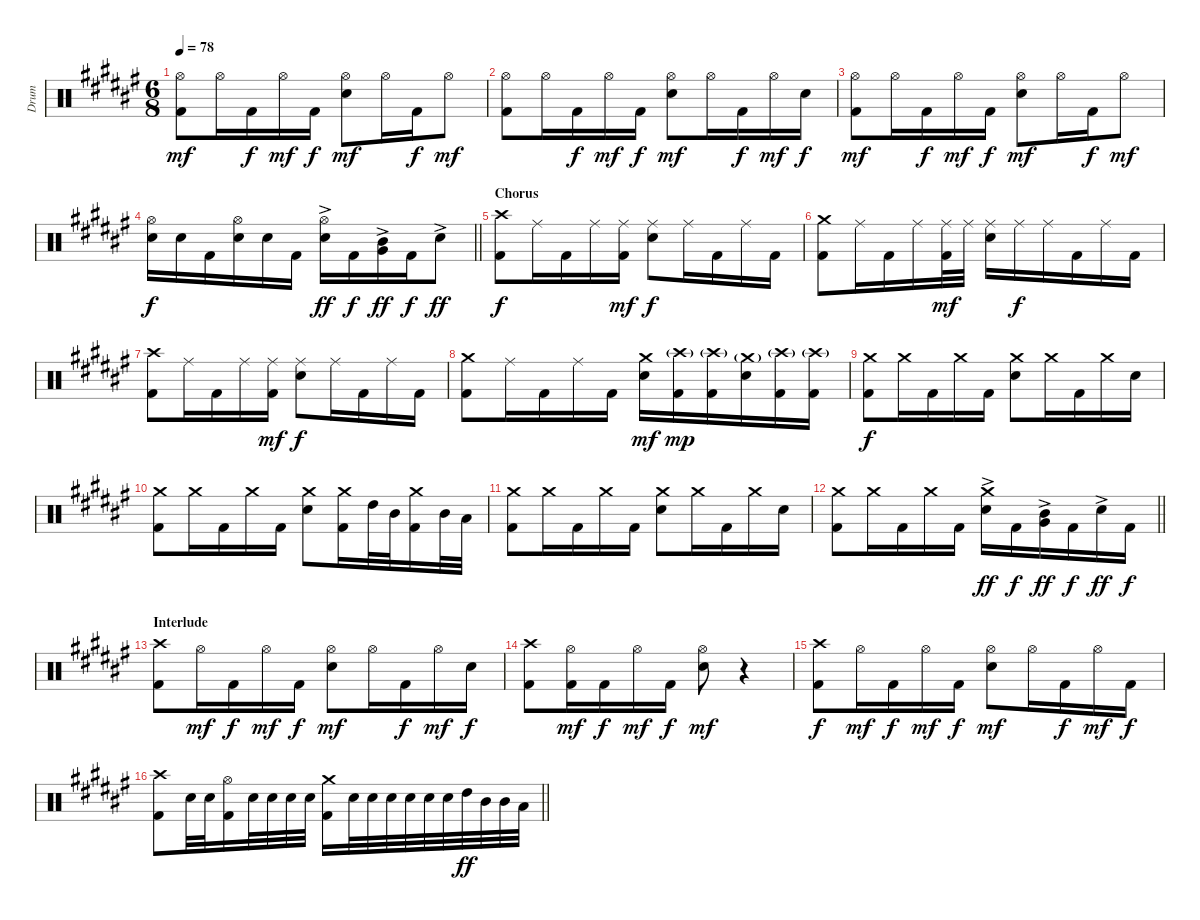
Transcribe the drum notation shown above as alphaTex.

\track ("Drum" "Drum") {instrument percussion}
\staff {score}
\articulation defaults
\ts (6 8)
\tempo 78
\clef neutral
\ks d#minor
("Hi-Hat (open)" "Kick (hit) 2").8{dy mf} "Hi-Hat (open)".16 "Kick (hit) 2".16{dy f} "Hi-Hat (open)".16{dy mf} "Kick (hit) 2".16{dy f} ("Hi-Hat (open)" "Electric Snare (hit)").8{dy mf} "Hi-Hat (open)".16 "Kick (hit) 2".16{dy f} "Hi-Hat (open)".8{dy mf} |
("Hi-Hat (open)" "Kick (hit) 2").8 "Hi-Hat (open)".16 "Kick (hit) 2".16{dy f} "Hi-Hat (open)".16{dy mf} "Kick (hit) 2".16{dy f} ("Hi-Hat (open)" "Electric Snare (hit)").8{dy mf} "Hi-Hat (open)".16 "Kick (hit) 2".16{dy f} "Hi-Hat (open)".16{dy mf} "Electric Snare (hit)".16{dy f} |
("Hi-Hat (open)" "Kick (hit) 2").8{dy mf} "Hi-Hat (open)".16 "Kick (hit) 2".16{dy f} "Hi-Hat (open)".16{dy mf} "Kick (hit) 2".16{dy f} ("Hi-Hat (open)" "Electric Snare (hit)").8{dy mf} "Hi-Hat (open)".16 "Kick (hit) 2".16{dy f} "Hi-Hat (open)".8{dy mf} |
\barLineRight lightlight
("Hi-Hat (open)" "Electric Snare (hit)").16{dy f} "Electric Snare (hit)".16 "Kick (hit) 2".16 ("Hi-Hat (open)" "Electric Snare (hit)").16 "Electric Snare (hit)".16 "Kick (hit) 2".16 ("Hi-Hat (open)" "Electric Snare (hit)"{ac}).16{dy ff} "Kick (hit) 2".16{dy f} ("Mid Tom (hit)" "Very Low Tom (hit)"{ac}).16{dy ff} "Kick (hit) 2".16{dy f} "Electric Snare (hit)"{ac}.8{dy ff} |
\section ("" "Chorus")
("Crash high (hit)" "Kick (hit) 2").8{dy f} "Ride (middle)".16 "Kick (hit) 2".16 "Ride (middle)".16 ("Ride (middle)" "Kick (hit) 2").16{dy mf} ("Ride (middle)" "Electric Snare (hit)").8{dy f} "Ride (middle)".16 "Kick (hit) 2".16 "Ride (middle)".16 "Kick (hit) 2".16 |
("Crash medium (hit)" "Kick (hit) 2").8 "Ride (middle)".16 "Kick (hit) 2".16 "Ride (middle)".16 ("Ride (middle)" "Kick (hit) 2").32{dy mf} "Ride (middle)".32 ("Ride (middle)" "Electric Snare (hit)").16 "Ride (middle)".16{dy f} "Ride (middle)".16 "Kick (hit) 2".16 "Ride (middle)".16 "Kick (hit) 2".16 |
("Crash high (hit)" "Kick (hit) 2").8 "Ride (middle)".16 "Kick (hit) 2".16 "Ride (middle)".16 ("Ride (middle)" "Kick (hit) 2").16{dy mf} ("Ride (middle)" "Electric Snare (hit)").8{dy f} "Ride (middle)".16 "Kick (hit) 2".16 "Ride (middle)".16 "Kick (hit) 2".16 |
("Crash medium (hit)" "Kick (hit) 2").8 "Ride (middle)".16 "Kick (hit) 2".16 "Ride (middle)".16 "Kick (hit) 2".16 ("Crash medium (hit)" "Electric Snare (hit)").16{dy mf} ("Crash high (hit)"{g} "Kick (hit) 2").16{dy mp} ("Crash high (hit)"{g} "Kick (hit) 2").16 ("Crash medium (hit)"{g} "Electric Snare (hit)").16 ("Crash high (hit)"{g} "Kick (hit) 2").16 ("Crash high (hit)"{g} "Kick (hit) 2").16 |
("Crash medium (hit)" "Kick (hit) 2").8{dy f} "Crash medium (hit)".16 "Kick (hit) 2".16 "Crash medium (hit)".16 "Kick (hit) 2".16 ("Crash medium (hit)" "Electric Snare (hit)").8 "Crash medium (hit)".16 "Kick (hit) 2".16 "Crash medium (hit)".16 "Electric Snare (hit)".16 |
("Crash medium (hit)" "Kick (hit) 2").8 "Crash medium (hit)".16 "Kick (hit) 2".16 "Crash medium (hit)".16 "Kick (hit) 2".16 ("Crash medium (hit)" "Electric Snare (hit)").8 ("Crash medium (hit)" "Kick (hit) 2").16 "High Tom (hit)".32 "Mid Tom (hit)".32 ("Crash medium (hit)" "Kick (hit) 2").16 "Mid Tom (hit)".32 "Low Tom (hit)".32 |
("Crash medium (hit)" "Kick (hit) 2").8 "Crash medium (hit)".16 "Kick (hit) 2".16 "Crash medium (hit)".16 "Kick (hit) 2".16 ("Crash medium (hit)" "Electric Snare (hit)").8 "Crash medium (hit)".16 "Kick (hit) 2".16 "Crash medium (hit)".16 "Electric Snare (hit)".16 |
\barLineRight lightlight
("Crash medium (hit)" "Kick (hit) 2").8 "Crash medium (hit)".16 "Kick (hit) 2".16 "Crash medium (hit)".16 "Kick (hit) 2".16 ("Crash medium (hit)" "Electric Snare (hit)"{ac}).16{dy ff} "Kick (hit) 2".16{dy f} ("Mid Tom (hit)" "Very Low Tom (hit)"{ac}).16{dy ff} "Kick (hit) 2".16{dy f} "Electric Snare (hit)"{ac}.16{dy ff} "Kick (hit) 2".16{dy f} |
\section ("" "Interlude")
("Crash high (hit)" "Kick (hit) 2").8 "Hi-Hat (open)".16{dy mf} "Kick (hit) 2".16{dy f} "Hi-Hat (open)".16{dy mf} "Kick (hit) 2".16{dy f} ("Hi-Hat (open)" "Electric Snare (hit)").8{dy mf} "Hi-Hat (open)".16 "Kick (hit) 2".16{dy f} "Hi-Hat (open)".16{dy mf} "Electric Snare (hit)".16{dy f} |
("Crash high (hit)" "Kick (hit) 2").8 ("Hi-Hat (open)" "Kick (hit) 2").16{dy mf} "Kick (hit) 2".16{dy f} "Hi-Hat (open)".16{dy mf} "Kick (hit) 2".16{dy f} ("Hi-Hat (open)" "Electric Snare (hit)").8{dy mf} r.4 |
("Crash high (hit)" "Kick (hit) 2").8{dy f} "Hi-Hat (open)".16{dy mf} "Kick (hit) 2".16{dy f} "Hi-Hat (open)".16{dy mf} "Kick (hit) 2".16{dy f} ("Hi-Hat (open)" "Electric Snare (hit)").8{dy mf} "Hi-Hat (open)".16 "Kick (hit) 2".16{dy f} "Hi-Hat (open)".16{dy mf} "Kick (hit) 2".16{dy f} |
\barLineRight lightlight
("Crash high (hit)" "Kick (hit) 2").8 "Electric Snare (hit)".32 "Electric Snare (hit)".32 ("Hi-Hat (open)" "Kick (hit) 2").16 "Electric Snare (hit)".32 "Electric Snare (hit)".32 "Electric Snare (hit)".32 "Electric Snare (hit)".32 ("Crash medium (hit)" "Kick (hit) 2").16 "Electric Snare (hit)".32 "Electric Snare (hit)".32 "Electric Snare (hit)".32 "Electric Snare (hit)".32 "Electric Snare (hit)".32 "Electric Snare (hit)".32 "High Tom (hit)".32{dy ff} "Mid Tom (hit)".32 "Mid Tom (hit)".32 "Low Tom (hit)".32
